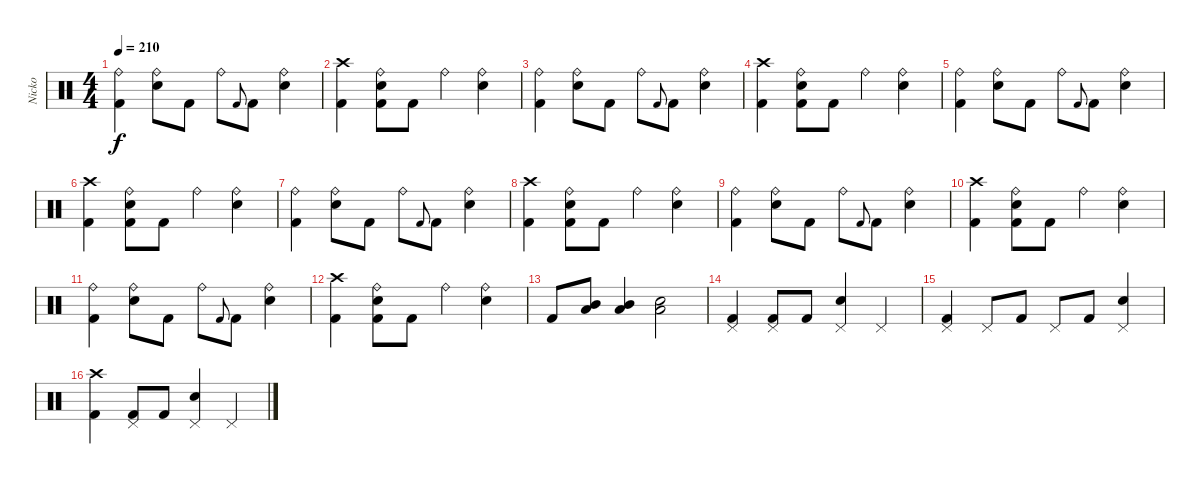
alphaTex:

\track ("Nicko" "Nicko") {instrument percussion}
\staff {score}
\articulation defaults
\ts (4 4)
\tempo 210
\clef neutral
\ks c
("Ride (bell)" "Kick (hit) 2").4{dy f} ("Ride (bell)" "Electric Snare (hit)").8 "Kick (hit) 2".8 "Ride (bell)".8 "Kick (hit) 2"{h}.8{gr onbeat} "Kick (hit) 2".8 ("Ride (bell)" "Electric Snare (hit)").4 |
("Crash high (hit)" "Kick (hit) 2").4 ("Ride (bell)" "Electric Snare (hit)" "Kick (hit) 2").8 "Kick (hit) 2".8 "Ride (bell)".4 ("Ride (bell)" "Electric Snare (hit)").4 |
("Ride (bell)" "Kick (hit) 2").4 ("Ride (bell)" "Electric Snare (hit)").8 "Kick (hit) 2".8 "Ride (bell)".8 "Kick (hit) 2"{h}.8{gr onbeat} "Kick (hit) 2".8 ("Ride (bell)" "Electric Snare (hit)").4 |
("Crash high (hit)" "Kick (hit) 2").4 ("Ride (bell)" "Electric Snare (hit)" "Kick (hit) 2").8 "Kick (hit) 2".8 "Ride (bell)".4 ("Ride (bell)" "Electric Snare (hit)").4 |
("Ride (bell)" "Kick (hit) 2").4 ("Ride (bell)" "Electric Snare (hit)").8 "Kick (hit) 2".8 "Ride (bell)".8 "Kick (hit) 2"{h}.8{gr onbeat} "Kick (hit) 2".8 ("Ride (bell)" "Electric Snare (hit)").4 |
("Crash high (hit)" "Kick (hit) 2").4 ("Ride (bell)" "Electric Snare (hit)" "Kick (hit) 2").8 "Kick (hit) 2".8 "Ride (bell)".4 ("Ride (bell)" "Electric Snare (hit)").4 |
("Ride (bell)" "Kick (hit) 2").4 ("Ride (bell)" "Electric Snare (hit)").8 "Kick (hit) 2".8 "Ride (bell)".8 "Kick (hit) 2"{h}.8{gr onbeat} "Kick (hit) 2".8 ("Ride (bell)" "Electric Snare (hit)").4 |
("Crash high (hit)" "Kick (hit) 2").4 ("Ride (bell)" "Electric Snare (hit)" "Kick (hit) 2").8 "Kick (hit) 2".8 "Ride (bell)".4 ("Ride (bell)" "Electric Snare (hit)").4 |
("Ride (bell)" "Kick (hit) 2").4 ("Ride (bell)" "Electric Snare (hit)").8 "Kick (hit) 2".8 "Ride (bell)".8 "Kick (hit) 2"{h}.8{gr onbeat} "Kick (hit) 2".8 ("Ride (bell)" "Electric Snare (hit)").4 |
("Crash high (hit)" "Kick (hit) 2").4 ("Ride (bell)" "Electric Snare (hit)" "Kick (hit) 2").8 "Kick (hit) 2".8 "Ride (bell)".4 ("Ride (bell)" "Electric Snare (hit)").4 |
("Ride (bell)" "Kick (hit) 2").4 ("Ride (bell)" "Electric Snare (hit)").8 "Kick (hit) 2".8 "Ride (bell)".8 "Kick (hit) 2"{h}.8{gr onbeat} "Kick (hit) 2".8 ("Ride (bell)" "Electric Snare (hit)").4 |
("Crash high (hit)" "Kick (hit) 2").4 ("Ride (bell)" "Electric Snare (hit)" "Kick (hit) 2").8 "Kick (hit) 2".8 "Ride (bell)".4 ("Ride (bell)" "Electric Snare (hit)").4 |
"Kick (hit) 2".8 ("Mid Tom (hit)" "Low Floor Tom (hit)").8 ("Mid Tom (hit)" "Low Floor Tom (hit)").4 ("Electric Snare (hit)" "Low Floor Tom (hit)").2 |
("Pedal Hi-Hat (hit)" "Kick (hit) 2").4 ("Pedal Hi-Hat (hit)" "Kick (hit) 2").8 "Kick (hit) 2".8 ("Pedal Hi-Hat (hit)" "Electric Snare (hit)").4 "Pedal Hi-Hat (hit)".4 |
("Pedal Hi-Hat (hit)" "Kick (hit) 2").4 "Pedal Hi-Hat (hit)".8 "Kick (hit) 2".8 "Pedal Hi-Hat (hit)".8 "Kick (hit) 2".8 ("Pedal Hi-Hat (hit)" "Electric Snare (hit)").4 |
("Crash high (hit)" "Kick (hit) 2").4 ("Pedal Hi-Hat (hit)" "Kick (hit) 2").8 "Kick (hit) 2".8 ("Pedal Hi-Hat (hit)" "Electric Snare (hit)").4 "Pedal Hi-Hat (hit)".4
